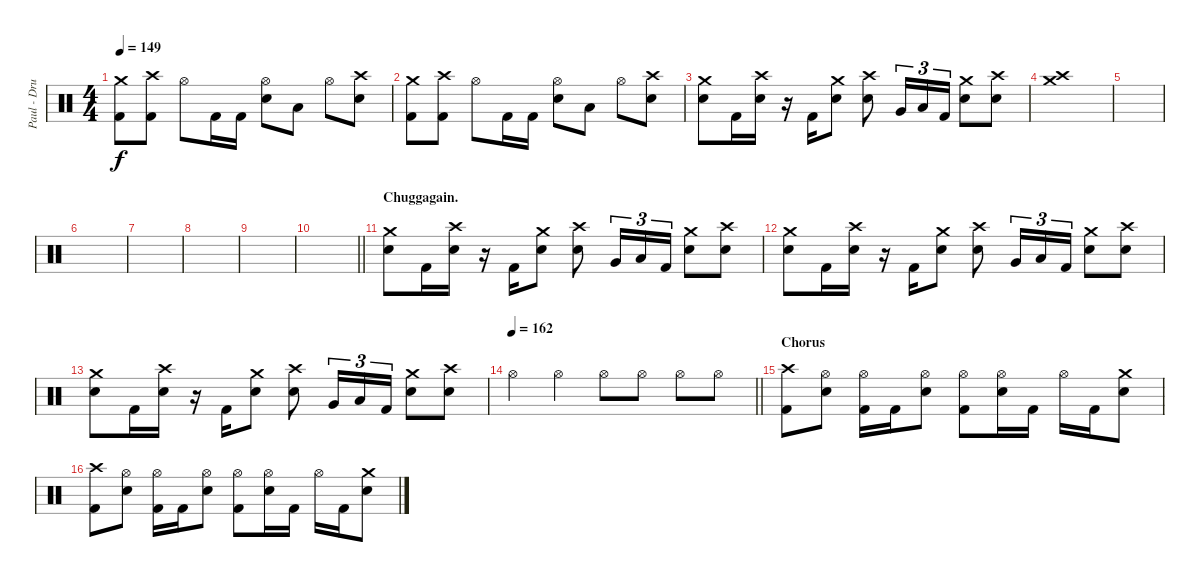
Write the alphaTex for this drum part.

\track ("Paul - Drums" "Paul - Dru") {instrument percussion}
\staff {score}
\articulation defaults
\ts (4 4)
\tempo 149
\clef neutral
\ks c
("Crash medium (hit)" "Kick (hit) 2").8{dy f} ("Crash high (hit)" "Kick (hit) 2").8 "Hi-Hat (open)".8 "Kick (hit) 2".16 "Kick (hit) 2".16 ("Hi-Hat (open)" "Electric Snare (hit)").8 "Low Tom (hit)".8 "Hi-Hat (open)".8 ("Crash high (hit)" "Electric Snare (hit)").8 |
("Crash medium (hit)" "Kick (hit) 2").8 ("Crash high (hit)" "Kick (hit) 2").8 "Hi-Hat (open)".8 "Kick (hit) 2".16 "Kick (hit) 2".16 ("Hi-Hat (open)" "Electric Snare (hit)").8 "Low Tom (hit)".8 "Hi-Hat (open)".8 ("Crash high (hit)" "Electric Snare (hit)").8 |
("Crash medium (hit)" "Electric Snare (hit)").8 "Kick (hit) 2".16 ("Crash high (hit)" "Electric Snare (hit)").16 r.16 "Kick (hit) 2".16 ("Crash medium (hit)" "Electric Snare (hit)").8 ("Crash high (hit)" "Electric Snare (hit)").8 "Very Low Tom (hit)".16{tu (3 2)} "Low Floor Tom (hit)".16{tu (3 2)} "Kick (hit) 2".16{tu (3 2)} ("Crash medium (hit)" "Electric Snare (hit)").8 ("Crash high (hit)" "Electric Snare (hit)").8 |
("Crash medium (hit)" "Crash high (hit)").1 |
|
|
|
|
|
\barLineRight lightlight
|
\section ("" "Chuggagain.")
("Crash medium (hit)" "Electric Snare (hit)").8 "Kick (hit) 2".16 ("Crash high (hit)" "Electric Snare (hit)").16 r.16 "Kick (hit) 2".16 ("Crash medium (hit)" "Electric Snare (hit)").8 ("Crash high (hit)" "Electric Snare (hit)").8 "Very Low Tom (hit)".16{tu (3 2)} "Low Floor Tom (hit)".16{tu (3 2)} "Kick (hit) 2".16{tu (3 2)} ("Crash medium (hit)" "Electric Snare (hit)").8 ("Crash high (hit)" "Electric Snare (hit)").8 |
("Crash medium (hit)" "Electric Snare (hit)").8 "Kick (hit) 2".16 ("Crash high (hit)" "Electric Snare (hit)").16 r.16 "Kick (hit) 2".16 ("Crash medium (hit)" "Electric Snare (hit)").8 ("Crash high (hit)" "Electric Snare (hit)").8 "Very Low Tom (hit)".16{tu (3 2)} "Low Floor Tom (hit)".16{tu (3 2)} "Kick (hit) 2".16{tu (3 2)} ("Crash medium (hit)" "Electric Snare (hit)").8 ("Crash high (hit)" "Electric Snare (hit)").8 |
("Crash medium (hit)" "Electric Snare (hit)").8 "Kick (hit) 2".16 ("Crash high (hit)" "Electric Snare (hit)").16 r.16 "Kick (hit) 2".16 ("Crash medium (hit)" "Electric Snare (hit)").8 ("Crash high (hit)" "Electric Snare (hit)").8 "Very Low Tom (hit)".16{tu (3 2)} "Low Floor Tom (hit)".16{tu (3 2)} "Kick (hit) 2".16{tu (3 2)} ("Crash medium (hit)" "Electric Snare (hit)").8 ("Crash high (hit)" "Electric Snare (hit)").8 |
\tempo 162
\barLineRight lightlight "Hi-Hat (open)".4 "Hi-Hat (open)".4 "Hi-Hat (open)".8 "Hi-Hat (open)".8 "Hi-Hat (open)".8 "Hi-Hat (open)".8
|
\section ("" "Chorus")
("Crash high (hit)" "Kick (hit) 2").8 ("Hi-Hat (open)" "Electric Snare (hit)").8 ("Hi-Hat (open)" "Kick (hit) 2").16 "Kick (hit) 2".16 ("Hi-Hat (open)" "Electric Snare (hit)").8 ("Hi-Hat (open)" "Kick (hit) 2").8 ("Hi-Hat (open)" "Electric Snare (hit)").16 "Kick (hit) 2".16 "Hi-Hat (open)".16 "Kick (hit) 2".16 ("Crash medium (hit)" "Electric Snare (hit)").8 |
("Crash high (hit)" "Kick (hit) 2").8 ("Hi-Hat (open)" "Electric Snare (hit)").8 ("Hi-Hat (open)" "Kick (hit) 2").16 "Kick (hit) 2".16 ("Hi-Hat (open)" "Electric Snare (hit)").8 ("Hi-Hat (open)" "Kick (hit) 2").8 ("Hi-Hat (open)" "Electric Snare (hit)").16 "Kick (hit) 2".16 "Hi-Hat (open)".16 "Kick (hit) 2".16 ("Crash medium (hit)" "Electric Snare (hit)").8
